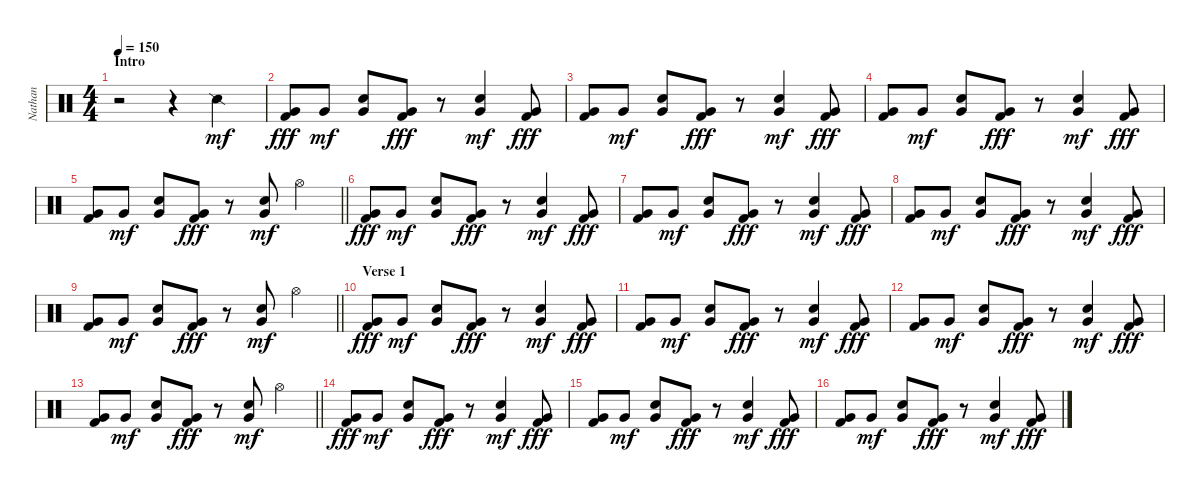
\track ("Nathan" "Nathan") {instrument percussion}
\staff {score}
\articulation defaults
\ts (4 4)
\section ("" "Intro")
\tempo 150
\clef neutral
\ks c
r.2{dy mf} r.4 "Snare (side stick) 2".4 |
("Very Low Tom (hit)" "Kick (hit) 2").8{dy fff} "Very Low Tom (hit)".8{dy mf} ("Very Low Tom (hit)" "Electric Snare (hit)").8 ("Very Low Tom (hit)" "Kick (hit) 2").8{dy fff} r.8 ("Very Low Tom (hit)" "Electric Snare (hit)").4{dy mf} ("Very Low Tom (hit)" "Kick (hit) 2").8{dy fff} |
("Very Low Tom (hit)" "Kick (hit) 2").8 "Very Low Tom (hit)".8{dy mf} ("Very Low Tom (hit)" "Electric Snare (hit)").8 ("Very Low Tom (hit)" "Kick (hit) 2").8{dy fff} r.8 ("Very Low Tom (hit)" "Electric Snare (hit)").4{dy mf} ("Very Low Tom (hit)" "Kick (hit) 2").8{dy fff} |
("Very Low Tom (hit)" "Kick (hit) 2").8 "Very Low Tom (hit)".8{dy mf} ("Very Low Tom (hit)" "Electric Snare (hit)").8 ("Very Low Tom (hit)" "Kick (hit) 2").8{dy fff} r.8 ("Very Low Tom (hit)" "Electric Snare (hit)").4{dy mf} ("Very Low Tom (hit)" "Kick (hit) 2").8{dy fff} |
\barLineRight lightlight
("Very Low Tom (hit)" "Kick (hit) 2").8 "Very Low Tom (hit)".8{dy mf} ("Very Low Tom (hit)" "Electric Snare (hit)").8 ("Very Low Tom (hit)" "Kick (hit) 2").8{dy fff} r.8 ("Very Low Tom (hit)" "Electric Snare (hit)").8{dy mf} "Hi-Hat (open)".4 |
("Very Low Tom (hit)" "Kick (hit) 2").8{dy fff} "Very Low Tom (hit)".8{dy mf} ("Very Low Tom (hit)" "Electric Snare (hit)").8 ("Very Low Tom (hit)" "Kick (hit) 2").8{dy fff} r.8 ("Very Low Tom (hit)" "Electric Snare (hit)").4{dy mf} ("Very Low Tom (hit)" "Kick (hit) 2").8{dy fff} |
("Very Low Tom (hit)" "Kick (hit) 2").8 "Very Low Tom (hit)".8{dy mf} ("Very Low Tom (hit)" "Electric Snare (hit)").8 ("Very Low Tom (hit)" "Kick (hit) 2").8{dy fff} r.8 ("Very Low Tom (hit)" "Electric Snare (hit)").4{dy mf} ("Very Low Tom (hit)" "Kick (hit) 2").8{dy fff} |
("Very Low Tom (hit)" "Kick (hit) 2").8 "Very Low Tom (hit)".8{dy mf} ("Very Low Tom (hit)" "Electric Snare (hit)").8 ("Very Low Tom (hit)" "Kick (hit) 2").8{dy fff} r.8 ("Very Low Tom (hit)" "Electric Snare (hit)").4{dy mf} ("Very Low Tom (hit)" "Kick (hit) 2").8{dy fff} |
\barLineRight lightlight
("Very Low Tom (hit)" "Kick (hit) 2").8 "Very Low Tom (hit)".8{dy mf} ("Very Low Tom (hit)" "Electric Snare (hit)").8 ("Very Low Tom (hit)" "Kick (hit) 2").8{dy fff} r.8 ("Very Low Tom (hit)" "Electric Snare (hit)").8{dy mf} "Hi-Hat (open)".4 |
\section ("" "Verse 1")
("Very Low Tom (hit)" "Kick (hit) 2").8{dy fff} "Very Low Tom (hit)".8{dy mf} ("Very Low Tom (hit)" "Electric Snare (hit)").8 ("Very Low Tom (hit)" "Kick (hit) 2").8{dy fff} r.8 ("Very Low Tom (hit)" "Electric Snare (hit)").4{dy mf} ("Very Low Tom (hit)" "Kick (hit) 2").8{dy fff} |
("Very Low Tom (hit)" "Kick (hit) 2").8 "Very Low Tom (hit)".8{dy mf} ("Very Low Tom (hit)" "Electric Snare (hit)").8 ("Very Low Tom (hit)" "Kick (hit) 2").8{dy fff} r.8 ("Very Low Tom (hit)" "Electric Snare (hit)").4{dy mf} ("Very Low Tom (hit)" "Kick (hit) 2").8{dy fff} |
("Very Low Tom (hit)" "Kick (hit) 2").8 "Very Low Tom (hit)".8{dy mf} ("Very Low Tom (hit)" "Electric Snare (hit)").8 ("Very Low Tom (hit)" "Kick (hit) 2").8{dy fff} r.8 ("Very Low Tom (hit)" "Electric Snare (hit)").4{dy mf} ("Very Low Tom (hit)" "Kick (hit) 2").8{dy fff} |
\barLineRight lightlight
("Very Low Tom (hit)" "Kick (hit) 2").8 "Very Low Tom (hit)".8{dy mf} ("Very Low Tom (hit)" "Electric Snare (hit)").8 ("Very Low Tom (hit)" "Kick (hit) 2").8{dy fff} r.8 ("Very Low Tom (hit)" "Electric Snare (hit)").8{dy mf} "Hi-Hat (open)".4 |
("Very Low Tom (hit)" "Kick (hit) 2").8{dy fff} "Very Low Tom (hit)".8{dy mf} ("Very Low Tom (hit)" "Electric Snare (hit)").8 ("Very Low Tom (hit)" "Kick (hit) 2").8{dy fff} r.8 ("Very Low Tom (hit)" "Electric Snare (hit)").4{dy mf} ("Very Low Tom (hit)" "Kick (hit) 2").8{dy fff} |
("Very Low Tom (hit)" "Kick (hit) 2").8 "Very Low Tom (hit)".8{dy mf} ("Very Low Tom (hit)" "Electric Snare (hit)").8 ("Very Low Tom (hit)" "Kick (hit) 2").8{dy fff} r.8 ("Very Low Tom (hit)" "Electric Snare (hit)").4{dy mf} ("Very Low Tom (hit)" "Kick (hit) 2").8{dy fff} |
("Very Low Tom (hit)" "Kick (hit) 2").8 "Very Low Tom (hit)".8{dy mf} ("Very Low Tom (hit)" "Electric Snare (hit)").8 ("Very Low Tom (hit)" "Kick (hit) 2").8{dy fff} r.8 ("Very Low Tom (hit)" "Electric Snare (hit)").4{dy mf} ("Very Low Tom (hit)" "Kick (hit) 2").8{dy fff}
